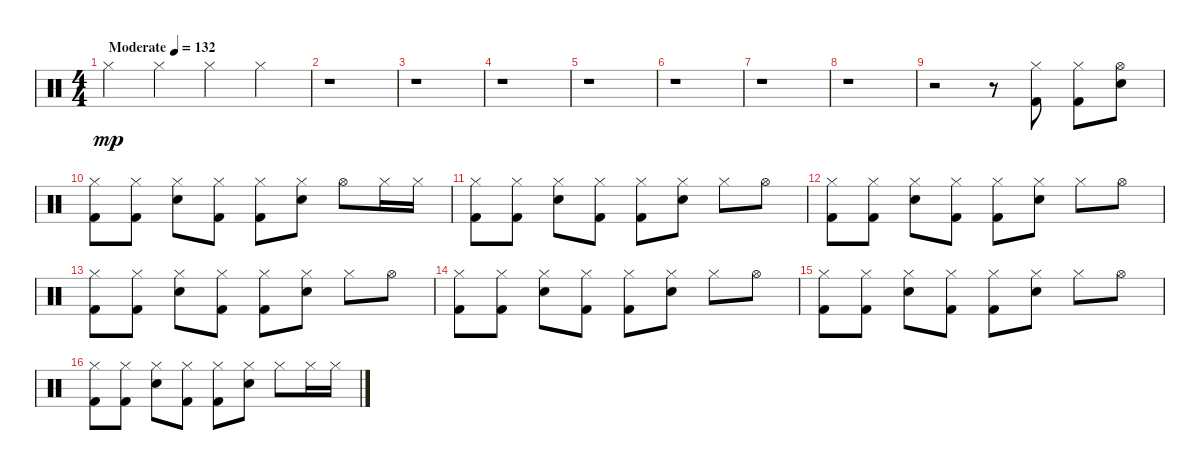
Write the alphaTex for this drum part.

\track "" {instrument percussion}
\staff {score}
\articulation defaults
\ts (4 4)
\tempo (132 "Moderate")
\clef neutral
\ks c "Hi-Hat (closed)".4{dy mp} "Hi-Hat (closed)".4 "Hi-Hat (closed)".4 "Hi-Hat (closed)".4
|
r.1 |
r.1 |
r.1 |
r.1 |
r.1 |
r.1 |
r.1 |
r.2 r.8 ("Hi-Hat (closed)" "Kick (hit) 2").8 ("Hi-Hat (closed)" "Kick (hit) 2").8 ("Snare (hit) 2" "Hi-Hat (open)").8 |
("Hi-Hat (closed)" "Kick (hit) 2").8 ("Hi-Hat (closed)" "Kick (hit) 2").8 ("Snare (hit) 2" "Hi-Hat (closed)").8 ("Hi-Hat (closed)" "Kick (hit) 2").8 ("Hi-Hat (closed)" "Kick (hit) 2").8 ("Snare (hit) 2" "Hi-Hat (closed)").8 "Hi-Hat (open)".8 "Hi-Hat (closed)".16 "Hi-Hat (closed)".16 |
("Hi-Hat (closed)" "Kick (hit) 2").8 ("Hi-Hat (closed)" "Kick (hit) 2").8 ("Snare (hit) 2" "Hi-Hat (closed)").8 ("Hi-Hat (closed)" "Kick (hit) 2").8 ("Hi-Hat (closed)" "Kick (hit) 2").8 ("Snare (hit) 2" "Hi-Hat (closed)").8 "Hi-Hat (closed)".8 "Hi-Hat (open)".8 |
("Hi-Hat (closed)" "Kick (hit) 2").8 ("Hi-Hat (closed)" "Kick (hit) 2").8 ("Snare (hit) 2" "Hi-Hat (closed)").8 ("Hi-Hat (closed)" "Kick (hit) 2").8 ("Hi-Hat (closed)" "Kick (hit) 2").8 ("Snare (hit) 2" "Hi-Hat (closed)").8 "Hi-Hat (closed)".8 "Hi-Hat (open)".8 |
("Hi-Hat (closed)" "Kick (hit) 2").8 ("Hi-Hat (closed)" "Kick (hit) 2").8 ("Snare (hit) 2" "Hi-Hat (closed)").8 ("Hi-Hat (closed)" "Kick (hit) 2").8 ("Hi-Hat (closed)" "Kick (hit) 2").8 ("Snare (hit) 2" "Hi-Hat (closed)").8 "Hi-Hat (closed)".8 "Hi-Hat (open)".8 |
("Hi-Hat (closed)" "Kick (hit) 2").8 ("Hi-Hat (closed)" "Kick (hit) 2").8 ("Snare (hit) 2" "Hi-Hat (closed)").8 ("Hi-Hat (closed)" "Kick (hit) 2").8 ("Hi-Hat (closed)" "Kick (hit) 2").8 ("Snare (hit) 2" "Hi-Hat (closed)").8 "Hi-Hat (closed)".8 "Hi-Hat (open)".8 |
("Hi-Hat (closed)" "Kick (hit) 2").8 ("Hi-Hat (closed)" "Kick (hit) 2").8 ("Snare (hit) 2" "Hi-Hat (closed)").8 ("Hi-Hat (closed)" "Kick (hit) 2").8 ("Hi-Hat (closed)" "Kick (hit) 2").8 ("Snare (hit) 2" "Hi-Hat (closed)").8 "Hi-Hat (closed)".8 "Hi-Hat (open)".8 |
("Hi-Hat (closed)" "Kick (hit) 2").8 ("Hi-Hat (closed)" "Kick (hit) 2").8 ("Snare (hit) 2" "Hi-Hat (closed)").8 ("Hi-Hat (closed)" "Kick (hit) 2").8 ("Hi-Hat (closed)" "Kick (hit) 2").8 ("Snare (hit) 2" "Hi-Hat (closed)").8 "Hi-Hat (closed)".8 "Hi-Hat (closed)".16 "Hi-Hat (closed)".16
